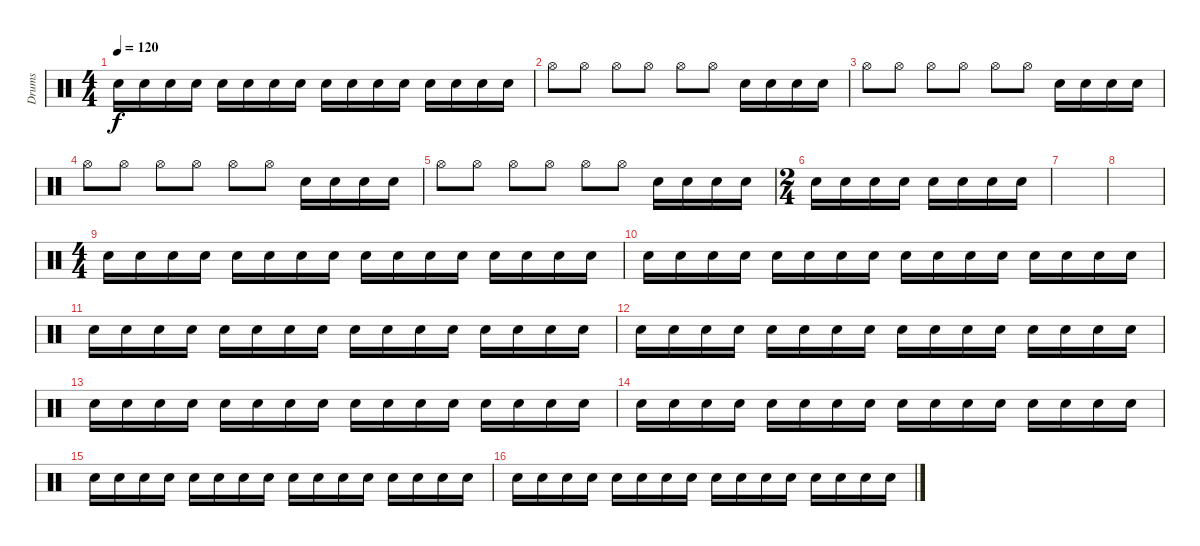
\track ("Drums" "Drums") {instrument percussion}
\staff {score}
\articulation defaults
\ts (4 4)
\tempo 120
\clef neutral
\ks c "Electric Snare (hit)".16{dy f} "Electric Snare (hit)".16 "Electric Snare (hit)".16 "Electric Snare (hit)".16 "Electric Snare (hit)".16 "Electric Snare (hit)".16 "Electric Snare (hit)".16 "Electric Snare (hit)".16 "Electric Snare (hit)".16 "Electric Snare (hit)".16 "Electric Snare (hit)".16 "Electric Snare (hit)".16 "Electric Snare (hit)".16 "Electric Snare (hit)".16 "Electric Snare (hit)".16 "Electric Snare (hit)".16
|
"Hi-Hat (open)".8 "Hi-Hat (open)".8 "Hi-Hat (open)".8 "Hi-Hat (open)".8 "Hi-Hat (open)".8 "Hi-Hat (open)".8 "Electric Snare (hit)".16 "Electric Snare (hit)".16 "Electric Snare (hit)".16 "Electric Snare (hit)".16 |
"Hi-Hat (open)".8 "Hi-Hat (open)".8 "Hi-Hat (open)".8 "Hi-Hat (open)".8 "Hi-Hat (open)".8 "Hi-Hat (open)".8 "Electric Snare (hit)".16 "Electric Snare (hit)".16 "Electric Snare (hit)".16 "Electric Snare (hit)".16 |
"Hi-Hat (open)".8 "Hi-Hat (open)".8 "Hi-Hat (open)".8 "Hi-Hat (open)".8 "Hi-Hat (open)".8 "Hi-Hat (open)".8 "Electric Snare (hit)".16 "Electric Snare (hit)".16 "Electric Snare (hit)".16 "Electric Snare (hit)".16 |
"Hi-Hat (open)".8 "Hi-Hat (open)".8 "Hi-Hat (open)".8 "Hi-Hat (open)".8 "Hi-Hat (open)".8 "Hi-Hat (open)".8 "Electric Snare (hit)".16 "Electric Snare (hit)".16 "Electric Snare (hit)".16 "Electric Snare (hit)".16 |
\ts (2 4)
"Electric Snare (hit)".16 "Electric Snare (hit)".16 "Electric Snare (hit)".16 "Electric Snare (hit)".16 "Electric Snare (hit)".16 "Electric Snare (hit)".16 "Electric Snare (hit)".16 "Electric Snare (hit)".16 |
|
|
\ts (4 4)
"Electric Snare (hit)".16 "Electric Snare (hit)".16 "Electric Snare (hit)".16 "Electric Snare (hit)".16 "Electric Snare (hit)".16 "Electric Snare (hit)".16 "Electric Snare (hit)".16 "Electric Snare (hit)".16 "Electric Snare (hit)".16 "Electric Snare (hit)".16 "Electric Snare (hit)".16 "Electric Snare (hit)".16 "Electric Snare (hit)".16 "Electric Snare (hit)".16 "Electric Snare (hit)".16 "Electric Snare (hit)".16 |
"Electric Snare (hit)".16 "Electric Snare (hit)".16 "Electric Snare (hit)".16 "Electric Snare (hit)".16 "Electric Snare (hit)".16 "Electric Snare (hit)".16 "Electric Snare (hit)".16 "Electric Snare (hit)".16 "Electric Snare (hit)".16 "Electric Snare (hit)".16 "Electric Snare (hit)".16 "Electric Snare (hit)".16 "Electric Snare (hit)".16 "Electric Snare (hit)".16 "Electric Snare (hit)".16 "Electric Snare (hit)".16 |
"Electric Snare (hit)".16 "Electric Snare (hit)".16 "Electric Snare (hit)".16 "Electric Snare (hit)".16 "Electric Snare (hit)".16 "Electric Snare (hit)".16 "Electric Snare (hit)".16 "Electric Snare (hit)".16 "Electric Snare (hit)".16 "Electric Snare (hit)".16 "Electric Snare (hit)".16 "Electric Snare (hit)".16 "Electric Snare (hit)".16 "Electric Snare (hit)".16 "Electric Snare (hit)".16 "Electric Snare (hit)".16 |
"Electric Snare (hit)".16 "Electric Snare (hit)".16 "Electric Snare (hit)".16 "Electric Snare (hit)".16 "Electric Snare (hit)".16 "Electric Snare (hit)".16 "Electric Snare (hit)".16 "Electric Snare (hit)".16 "Electric Snare (hit)".16 "Electric Snare (hit)".16 "Electric Snare (hit)".16 "Electric Snare (hit)".16 "Electric Snare (hit)".16 "Electric Snare (hit)".16 "Electric Snare (hit)".16 "Electric Snare (hit)".16 |
"Electric Snare (hit)".16 "Electric Snare (hit)".16 "Electric Snare (hit)".16 "Electric Snare (hit)".16 "Electric Snare (hit)".16 "Electric Snare (hit)".16 "Electric Snare (hit)".16 "Electric Snare (hit)".16 "Electric Snare (hit)".16 "Electric Snare (hit)".16 "Electric Snare (hit)".16 "Electric Snare (hit)".16 "Electric Snare (hit)".16 "Electric Snare (hit)".16 "Electric Snare (hit)".16 "Electric Snare (hit)".16 |
"Electric Snare (hit)".16 "Electric Snare (hit)".16 "Electric Snare (hit)".16 "Electric Snare (hit)".16 "Electric Snare (hit)".16 "Electric Snare (hit)".16 "Electric Snare (hit)".16 "Electric Snare (hit)".16 "Electric Snare (hit)".16 "Electric Snare (hit)".16 "Electric Snare (hit)".16 "Electric Snare (hit)".16 "Electric Snare (hit)".16 "Electric Snare (hit)".16 "Electric Snare (hit)".16 "Electric Snare (hit)".16 |
"Electric Snare (hit)".16 "Electric Snare (hit)".16 "Electric Snare (hit)".16 "Electric Snare (hit)".16 "Electric Snare (hit)".16 "Electric Snare (hit)".16 "Electric Snare (hit)".16 "Electric Snare (hit)".16 "Electric Snare (hit)".16 "Electric Snare (hit)".16 "Electric Snare (hit)".16 "Electric Snare (hit)".16 "Electric Snare (hit)".16 "Electric Snare (hit)".16 "Electric Snare (hit)".16 "Electric Snare (hit)".16 |
"Electric Snare (hit)".16 "Electric Snare (hit)".16 "Electric Snare (hit)".16 "Electric Snare (hit)".16 "Electric Snare (hit)".16 "Electric Snare (hit)".16 "Electric Snare (hit)".16 "Electric Snare (hit)".16 "Electric Snare (hit)".16 "Electric Snare (hit)".16 "Electric Snare (hit)".16 "Electric Snare (hit)".16 "Electric Snare (hit)".16 "Electric Snare (hit)".16 "Electric Snare (hit)".16 "Electric Snare (hit)".16
